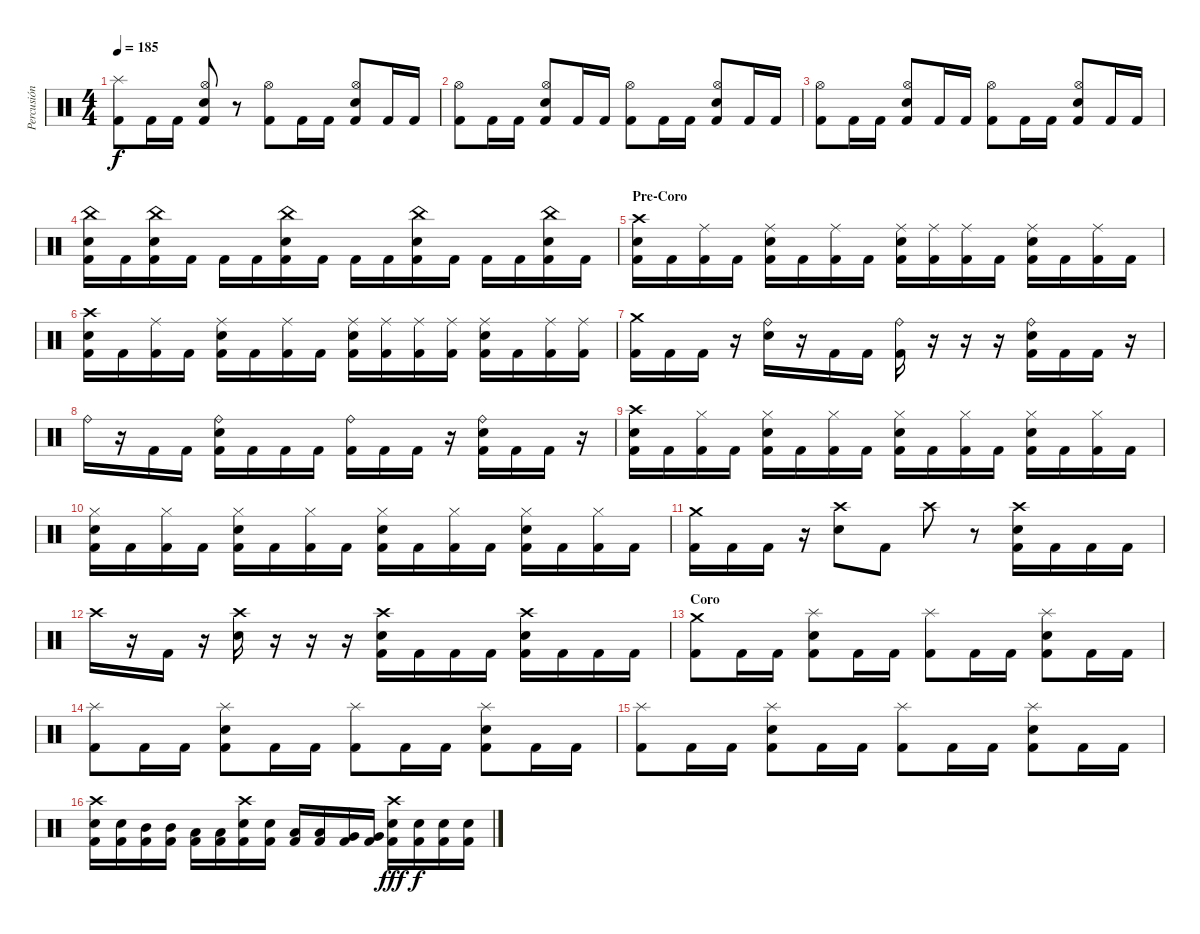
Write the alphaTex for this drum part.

\track ("Percusión" "Percusión") {instrument percussion}
\staff {score}
\articulation defaults
\ts (4 4)
\tempo 185
\clef neutral
\ks c
("Splash (hit)" "Kick (hit) 2").8{dy f} "Kick (hit) 2".16 "Kick (hit) 2".16 ("Hi-Hat (open)" "Snare (hit) 2" "Kick (hit) 2").8 r.8 ("Hi-Hat (open)" "Kick (hit) 2").8 "Kick (hit) 2".16 "Kick (hit) 2".16 ("Hi-Hat (open)" "Snare (hit) 2" "Kick (hit) 2").8 "Kick (hit) 2".16 "Kick (hit) 2".16 |
("Hi-Hat (open)" "Kick (hit) 2").8 "Kick (hit) 2".16 "Kick (hit) 2".16 ("Hi-Hat (open)" "Snare (hit) 2" "Kick (hit) 2").8 "Kick (hit) 2".16 "Kick (hit) 2".16 ("Hi-Hat (open)" "Kick (hit) 2").8 "Kick (hit) 2".16 "Kick (hit) 2".16 ("Hi-Hat (open)" "Snare (hit) 2" "Kick (hit) 2").8 "Kick (hit) 2".16 "Kick (hit) 2".16 |
("Hi-Hat (open)" "Kick (hit) 2").8 "Kick (hit) 2".16 "Kick (hit) 2".16 ("Hi-Hat (open)" "Snare (hit) 2" "Kick (hit) 2").8 "Kick (hit) 2".16 "Kick (hit) 2".16 ("Hi-Hat (open)" "Kick (hit) 2").8 "Kick (hit) 2".16 "Kick (hit) 2".16 ("Hi-Hat (open)" "Snare (hit) 2" "Kick (hit) 2").8 "Kick (hit) 2".16 "Kick (hit) 2".16 |
("China (hit)" "Snare (hit) 2" "Kick (hit) 2").16 "Kick (hit) 2".16 ("China (hit)" "Snare (hit) 2" "Kick (hit) 2").16 "Kick (hit) 2".16 "Kick (hit) 2".16 "Kick (hit) 2".16 ("China (hit)" "Snare (hit) 2" "Kick (hit) 2").16 "Kick (hit) 2".16 "Kick (hit) 2".16 "Kick (hit) 2".16 ("China (hit)" "Snare (hit) 2" "Kick (hit) 2").16 "Kick (hit) 2".16 "Kick (hit) 2".16 "Kick (hit) 2".16 ("China (hit)" "Snare (hit) 2" "Kick (hit) 2").16 "Kick (hit) 2".16 |
\section ("" "Pre-Coro")
("Crash high (hit)" "Snare (hit) 2" "Kick (hit) 2").16 "Kick (hit) 2".16 ("Ride (middle)" "Kick (hit) 2").16 "Kick (hit) 2".16 ("Ride (middle)" "Snare (hit) 2" "Kick (hit) 2").16 "Kick (hit) 2".16 ("Ride (middle)" "Kick (hit) 2").16 "Kick (hit) 2".16 ("Ride (middle)" "Snare (hit) 2" "Kick (hit) 2").16 ("Ride (middle)" "Kick (hit) 2").16 ("Ride (middle)" "Kick (hit) 2").16 "Kick (hit) 2".16 ("Ride (middle)" "Snare (hit) 2" "Kick (hit) 2").16 "Kick (hit) 2".16 ("Ride (middle)" "Kick (hit) 2").16 "Kick (hit) 2".16 |
("Crash high (hit)" "Snare (hit) 2" "Kick (hit) 2").16 "Kick (hit) 2".16 ("Ride (middle)" "Kick (hit) 2").16 "Kick (hit) 2".16 ("Ride (middle)" "Snare (hit) 2" "Kick (hit) 2").16 "Kick (hit) 2".16 ("Ride (middle)" "Kick (hit) 2").16 "Kick (hit) 2".16 ("Ride (middle)" "Snare (hit) 2" "Kick (hit) 2").16 ("Ride (middle)" "Kick (hit) 2").16 ("Ride (middle)" "Kick (hit) 2").16 ("Ride (middle)" "Kick (hit) 2").16 ("Ride (middle)" "Snare (hit) 2" "Kick (hit) 2").16 "Kick (hit) 2".16 ("Ride (middle)" "Kick (hit) 2").16 ("Ride (middle)" "Kick (hit) 2").16 |
("Crash medium (hit)" "Kick (hit) 2").16 "Kick (hit) 2".16 "Kick (hit) 2".16 r.16 ("Ride (bell)" "Snare (hit) 2").16 r.16 "Kick (hit) 2".16 "Kick (hit) 2".16 ("Ride (bell)" "Kick (hit) 2").16 r.16 r.16 r.16 ("Ride (bell)" "Snare (hit) 2" "Kick (hit) 2").16 "Kick (hit) 2".16 "Kick (hit) 2".16 r.16 |
"Ride (bell)".16 r.16 "Kick (hit) 2".16 "Kick (hit) 2".16 ("Ride (bell)" "Snare (hit) 2" "Kick (hit) 2").16 "Kick (hit) 2".16 "Kick (hit) 2".16 "Kick (hit) 2".16 ("Ride (bell)" "Kick (hit) 2").16 "Kick (hit) 2".16 "Kick (hit) 2".16 r.16 ("Ride (bell)" "Snare (hit) 2" "Kick (hit) 2").16 "Kick (hit) 2".16 "Kick (hit) 2".16 r.16 |
("Crash high (hit)" "Snare (hit) 2" "Kick (hit) 2").16 "Kick (hit) 2".16 ("Hi-Hat (closed)" "Kick (hit) 2").16 "Kick (hit) 2".16 ("Hi-Hat (closed)" "Snare (hit) 2" "Kick (hit) 2").16 "Kick (hit) 2".16 ("Hi-Hat (closed)" "Kick (hit) 2").16 "Kick (hit) 2".16 ("Hi-Hat (closed)" "Snare (hit) 2" "Kick (hit) 2").16 "Kick (hit) 2".16 ("Hi-Hat (closed)" "Kick (hit) 2").16 "Kick (hit) 2".16 ("Hi-Hat (closed)" "Snare (hit) 2" "Kick (hit) 2").16 "Kick (hit) 2".16 ("Hi-Hat (closed)" "Kick (hit) 2").16 "Kick (hit) 2".16 |
("Hi-Hat (closed)" "Snare (hit) 2" "Kick (hit) 2").16 "Kick (hit) 2".16 ("Hi-Hat (closed)" "Kick (hit) 2").16 "Kick (hit) 2".16 ("Hi-Hat (closed)" "Snare (hit) 2" "Kick (hit) 2").16 "Kick (hit) 2".16 ("Hi-Hat (closed)" "Kick (hit) 2").16 "Kick (hit) 2".16 ("Hi-Hat (closed)" "Snare (hit) 2" "Kick (hit) 2").16 "Kick (hit) 2".16 ("Hi-Hat (closed)" "Kick (hit) 2").16 "Kick (hit) 2".16 ("Hi-Hat (closed)" "Snare (hit) 2" "Kick (hit) 2").16 "Kick (hit) 2".16 ("Hi-Hat (closed)" "Kick (hit) 2").16 "Kick (hit) 2".16 |
("Crash medium (hit)" "Kick (hit) 2").16 "Kick (hit) 2".16 "Kick (hit) 2".16 r.16 ("Crash high (hit)" "Snare (hit) 2").8 "Kick (hit) 2".8 "Crash high (hit)".8 r.8 ("Crash high (hit)" "Snare (hit) 2" "Kick (hit) 2").16 "Kick (hit) 2".16 "Kick (hit) 2".16 "Kick (hit) 2".16 |
"Crash high (hit)".16 r.16 "Kick (hit) 2".16 r.16 ("Crash high (hit)" "Snare (hit) 2").16 r.16 r.16 r.16 ("Crash high (hit)" "Snare (hit) 2" "Kick (hit) 2").16 "Kick (hit) 2".16 "Kick (hit) 2".16 "Kick (hit) 2".16 ("Crash high (hit)" "Snare (hit) 2" "Kick (hit) 2").16 "Kick (hit) 2".16 "Kick (hit) 2".16 "Kick (hit) 2".16 |
\section ("" "Coro")
("Crash medium (hit)" "Kick (hit) 2").8 "Kick (hit) 2".16 "Kick (hit) 2".16 ("Splash (hit)" "Snare (hit) 2" "Kick (hit) 2").8 "Kick (hit) 2".16 "Kick (hit) 2".16 ("Splash (hit)" "Kick (hit) 2").8 "Kick (hit) 2".16 "Kick (hit) 2".16 ("Splash (hit)" "Snare (hit) 2" "Kick (hit) 2").8 "Kick (hit) 2".16 "Kick (hit) 2".16 |
("Splash (hit)" "Kick (hit) 2").8 "Kick (hit) 2".16 "Kick (hit) 2".16 ("Splash (hit)" "Snare (hit) 2" "Kick (hit) 2").8 "Kick (hit) 2".16 "Kick (hit) 2".16 ("Splash (hit)" "Kick (hit) 2").8 "Kick (hit) 2".16 "Kick (hit) 2".16 ("Splash (hit)" "Snare (hit) 2" "Kick (hit) 2").8 "Kick (hit) 2".16 "Kick (hit) 2".16 |
("Splash (hit)" "Kick (hit) 2").8 "Kick (hit) 2".16 "Kick (hit) 2".16 ("Splash (hit)" "Snare (hit) 2" "Kick (hit) 2").8 "Kick (hit) 2".16 "Kick (hit) 2".16 ("Splash (hit)" "Kick (hit) 2").8 "Kick (hit) 2".16 "Kick (hit) 2".16 ("Splash (hit)" "Snare (hit) 2" "Kick (hit) 2").8 "Kick (hit) 2".16 "Kick (hit) 2".16 |
("Crash high (hit)" "Snare (hit) 2" "Kick (hit) 2").16 ("Snare (hit) 2" "Kick (hit) 2").16 ("Mid Tom (hit)" "Kick (hit) 2").16 ("Mid Tom (hit)" "Kick (hit) 2").16 ("Low Tom (hit)" "Kick (hit) 2").16 ("Low Tom (hit)" "Kick (hit) 2").16 ("Crash high (hit)" "Snare (hit) 2" "Kick (hit) 2").16 ("Snare (hit) 2" "Kick (hit) 2").16 ("Low Tom (hit)" "Kick (hit) 2").16 ("Low Tom (hit)" "Kick (hit) 2").16 ("Very Low Tom (hit)" "Kick (hit) 2").16 ("Very Low Tom (hit)" "Kick (hit) 2").16 ("Crash high (hit)" "Snare (hit) 2" "Kick (hit) 2").16{dy fff} ("Snare (hit) 2" "Kick (hit) 2").16{dy f} ("Snare (hit) 2" "Kick (hit) 2").16 ("Snare (hit) 2" "Kick (hit) 2").16
